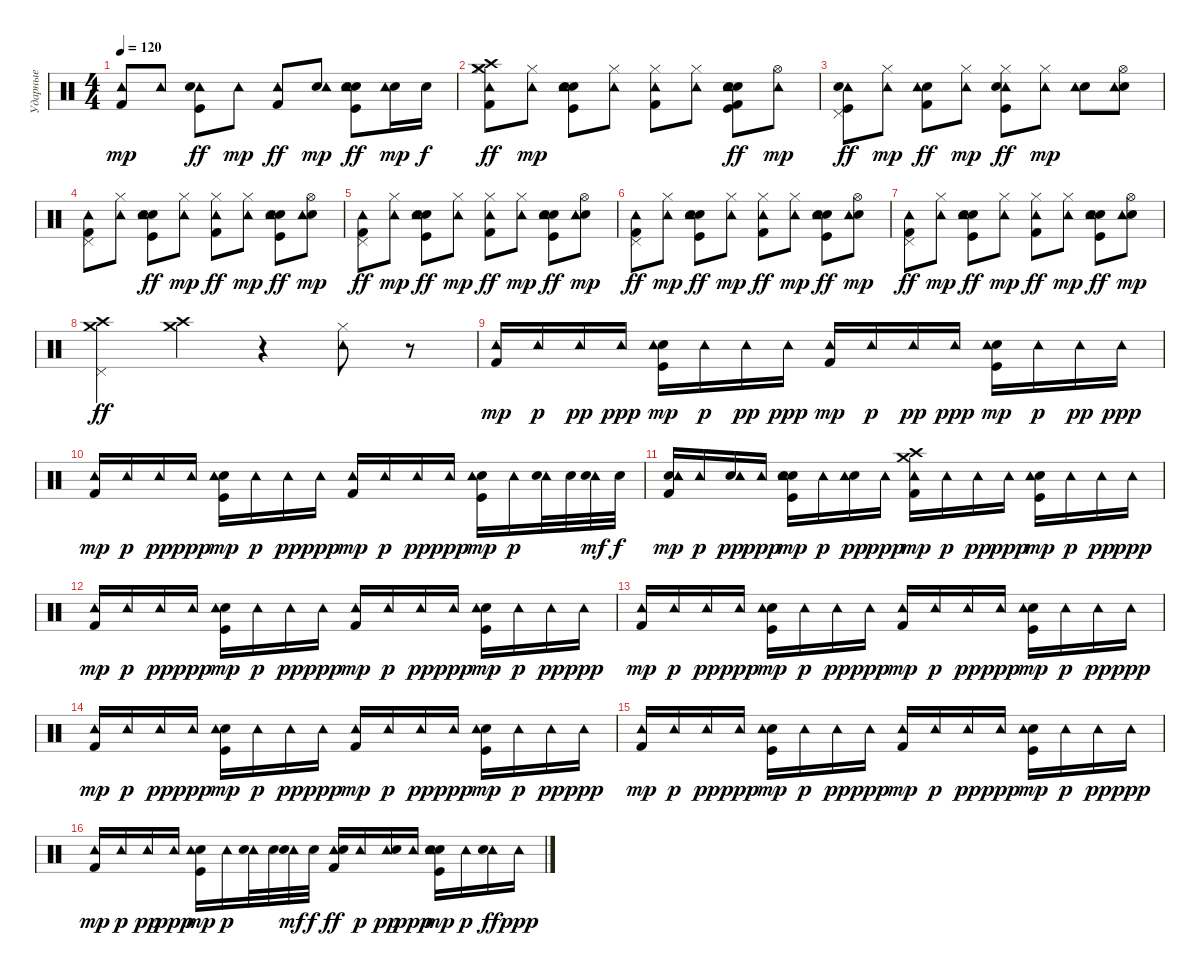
\track ("Ударные" "Ударные") {instrument percussion}
\staff {score}
\articulation defaults
\ts (4 4)
\tempo 120
\clef neutral
\ks c
("Kick (hit) 2" "Tambourine (hit)").8{dy mp} "Tambourine (hit)".8 ("Tambourine (hit)" "Kick (hit)" "Snare (hit) 2").8{dy ff} "Tambourine (hit)".8{dy mp} ("Tambourine (hit)" "Kick (hit) 2").8{dy ff} ("Electric Snare (hit)" "Tambourine (hit)").8{dy mp} ("Electric Snare (hit)" "Tambourine (hit)" "Kick (hit)" "Snare (hit) 2").8{dy ff} ("Electric Snare (hit)" "Tambourine (hit)").16{dy mp} "Electric Snare (hit)".16{dy f} |
("Crash high (hit)" "Crash medium (hit)" "Hi-Hat (closed)" "Tambourine (hit)" "Kick (hit) 2").8{dy ff} ("Hi-Hat (closed)" "Tambourine (hit)").8{dy mp} ("Electric Snare (hit)" "Kick (hit)" "Snare (hit) 2" "Tambourine (hit)").8 ("Hi-Hat (closed)" "Tambourine (hit)").8 ("Hi-Hat (closed)" "Kick (hit) 2" "Tambourine (hit)").8 ("Hi-Hat (closed)" "Tambourine (hit)").8 ("Electric Snare (hit)" "Kick (hit)" "Snare (hit) 2" "Tambourine (hit)" "Kick (hit) 2").8{dy ff} ("Hi-Hat (open)" "Tambourine (hit)").8{dy mp} |
("Pedal Hi-Hat (hit)" "Tambourine (hit)" "Kick (hit)" "Snare (hit) 2").8{dy ff} ("Hi-Hat (closed)" "Tambourine (hit)").8{dy mp} ("Electric Snare (hit)" "Tambourine (hit)" "Kick (hit) 2").8{dy ff} ("Hi-Hat (closed)" "Tambourine (hit)").8{dy mp} ("Hi-Hat (closed)" "Tambourine (hit)" "Kick (hit)" "Snare (hit) 2").8{dy ff} ("Hi-Hat (closed)" "Tambourine (hit)").8{dy mp} ("Electric Snare (hit)" "Tambourine (hit)").8 ("Electric Snare (hit)" "Hi-Hat (open)" "Tambourine (hit)").8 |
("Pedal Hi-Hat (hit)" "Kick (hit) 2" "Tambourine (hit)").8 ("Hi-Hat (closed)" "Tambourine (hit)").8 ("Electric Snare (hit)" "Tambourine (hit)" "Kick (hit)" "Snare (hit) 2").8{dy ff} ("Hi-Hat (closed)" "Tambourine (hit)").8{dy mp} ("Hi-Hat (closed)" "Tambourine (hit)" "Kick (hit) 2").8{dy ff} ("Hi-Hat (closed)" "Tambourine (hit)").8{dy mp} ("Electric Snare (hit)" "Tambourine (hit)" "Kick (hit)" "Snare (hit) 2").8{dy ff} ("Electric Snare (hit)" "Hi-Hat (open)" "Tambourine (hit)").8{dy mp} |
("Pedal Hi-Hat (hit)" "Tambourine (hit)" "Kick (hit) 2").8{dy ff} ("Hi-Hat (closed)" "Tambourine (hit)").8{dy mp} ("Electric Snare (hit)" "Tambourine (hit)" "Kick (hit)" "Snare (hit) 2").8{dy ff} ("Hi-Hat (closed)" "Tambourine (hit)").8{dy mp} ("Hi-Hat (closed)" "Tambourine (hit)" "Kick (hit) 2").8{dy ff} ("Hi-Hat (closed)" "Tambourine (hit)").8{dy mp} ("Electric Snare (hit)" "Tambourine (hit)" "Kick (hit)" "Snare (hit) 2").8{dy ff} ("Electric Snare (hit)" "Hi-Hat (open)" "Tambourine (hit)").8{dy mp} |
("Pedal Hi-Hat (hit)" "Tambourine (hit)" "Kick (hit) 2").8{dy ff} ("Hi-Hat (closed)" "Tambourine (hit)").8{dy mp} ("Electric Snare (hit)" "Tambourine (hit)" "Kick (hit)" "Snare (hit) 2").8{dy ff} ("Hi-Hat (closed)" "Tambourine (hit)").8{dy mp} ("Hi-Hat (closed)" "Tambourine (hit)" "Kick (hit) 2").8{dy ff} ("Hi-Hat (closed)" "Tambourine (hit)").8{dy mp} ("Electric Snare (hit)" "Tambourine (hit)" "Kick (hit)" "Snare (hit) 2").8{dy ff} ("Electric Snare (hit)" "Hi-Hat (open)" "Tambourine (hit)").8{dy mp} |
("Pedal Hi-Hat (hit)" "Tambourine (hit)" "Kick (hit) 2").8{dy ff} ("Hi-Hat (closed)" "Tambourine (hit)").8{dy mp} ("Electric Snare (hit)" "Tambourine (hit)" "Kick (hit)" "Snare (hit) 2").8{dy ff} ("Hi-Hat (closed)" "Tambourine (hit)").8{dy mp} ("Hi-Hat (closed)" "Tambourine (hit)" "Kick (hit) 2").8{dy ff} ("Hi-Hat (closed)" "Tambourine (hit)").8{dy mp} ("Electric Snare (hit)" "Tambourine (hit)" "Kick (hit)" "Snare (hit) 2").8{dy ff} ("Hi-Hat (open)" "Electric Snare (hit)" "Tambourine (hit)").8{dy mp} |
("Pedal Hi-Hat (hit)" "Crash high (hit)" "Crash medium (hit)").4{dy ff} ("Crash high (hit)" "Crash medium (hit)").4 r.4 ("Hi-Hat (closed)" "Tambourine (hit)").8 r.8 |
("Kick (hit) 2" "Tambourine (hit)").16{dy mp} "Tambourine (hit)".16{dy p} "Tambourine (hit)".16{dy pp} "Tambourine (hit)".16{dy ppp} ("Kick (hit)" "Snare (hit) 2" "Tambourine (hit)").16{dy mp} "Tambourine (hit)".16{dy p} "Tambourine (hit)".16{dy pp} "Tambourine (hit)".16{dy ppp} ("Kick (hit) 2" "Tambourine (hit)").16{dy mp} "Tambourine (hit)".16{dy p} "Tambourine (hit)".16{dy pp} "Tambourine (hit)".16{dy ppp} ("Kick (hit)" "Snare (hit) 2" "Tambourine (hit)").16{dy mp} "Tambourine (hit)".16{dy p} "Tambourine (hit)".16{dy pp} "Tambourine (hit)".16{dy ppp} |
("Kick (hit) 2" "Tambourine (hit)").16{dy mp} "Tambourine (hit)".16{dy p} "Tambourine (hit)".16{dy pp} "Tambourine (hit)".16{dy ppp} ("Kick (hit)" "Snare (hit) 2" "Tambourine (hit)").16{dy mp} "Tambourine (hit)".16{dy p} "Tambourine (hit)".16{dy pp} "Tambourine (hit)".16{dy ppp} ("Kick (hit) 2" "Tambourine (hit)").16{dy mp} "Tambourine (hit)".16{dy p} "Tambourine (hit)".16{dy pp} "Tambourine (hit)".16{dy ppp} ("Kick (hit)" "Snare (hit) 2" "Tambourine (hit)").16{dy mp} "Tambourine (hit)".16{dy p} ("Tambourine (hit)" "Electric Snare (hit)").32 "Electric Snare (hit)".32 ("Tambourine (hit)" "Electric Snare (hit)").32{dy mf} "Electric Snare (hit)".32{dy f} |
("Electric Snare (hit)" "Kick (hit) 2" "Tambourine (hit)").16{dy mp} "Tambourine (hit)".16{dy p} ("Electric Snare (hit)" "Tambourine (hit)").16{dy pp} "Tambourine (hit)".16{dy ppp} ("Electric Snare (hit)" "Kick (hit)" "Snare (hit) 2" "Tambourine (hit)").16{dy mp} "Tambourine (hit)".16{dy p} ("Electric Snare (hit)" "Tambourine (hit)").16{dy pp} "Tambourine (hit)".16{dy ppp} ("Crash medium (hit)" "Crash high (hit)" "Kick (hit) 2" "Tambourine (hit)").16{dy mp} "Tambourine (hit)".16{dy p} "Tambourine (hit)".16{dy pp} "Tambourine (hit)".16{dy ppp} ("Kick (hit)" "Snare (hit) 2" "Tambourine (hit)").16{dy mp} "Tambourine (hit)".16{dy p} "Tambourine (hit)".16{dy pp} "Tambourine (hit)".16{dy ppp} |
("Kick (hit) 2" "Tambourine (hit)").16{dy mp} "Tambourine (hit)".16{dy p} "Tambourine (hit)".16{dy pp} "Tambourine (hit)".16{dy ppp} ("Kick (hit)" "Snare (hit) 2" "Tambourine (hit)").16{dy mp} "Tambourine (hit)".16{dy p} "Tambourine (hit)".16{dy pp} "Tambourine (hit)".16{dy ppp} ("Kick (hit) 2" "Tambourine (hit)").16{dy mp} "Tambourine (hit)".16{dy p} "Tambourine (hit)".16{dy pp} "Tambourine (hit)".16{dy ppp} ("Kick (hit)" "Snare (hit) 2" "Tambourine (hit)").16{dy mp} "Tambourine (hit)".16{dy p} "Tambourine (hit)".16{dy pp} "Tambourine (hit)".16{dy ppp} |
("Kick (hit) 2" "Tambourine (hit)").16{dy mp} "Tambourine (hit)".16{dy p} "Tambourine (hit)".16{dy pp} "Tambourine (hit)".16{dy ppp} ("Kick (hit)" "Snare (hit) 2" "Tambourine (hit)").16{dy mp} "Tambourine (hit)".16{dy p} "Tambourine (hit)".16{dy pp} "Tambourine (hit)".16{dy ppp} ("Kick (hit) 2" "Tambourine (hit)").16{dy mp} "Tambourine (hit)".16{dy p} "Tambourine (hit)".16{dy pp} "Tambourine (hit)".16{dy ppp} ("Kick (hit)" "Snare (hit) 2" "Tambourine (hit)").16{dy mp} "Tambourine (hit)".16{dy p} "Tambourine (hit)".16{dy pp} "Tambourine (hit)".16{dy ppp} |
("Kick (hit) 2" "Tambourine (hit)").16{dy mp} "Tambourine (hit)".16{dy p} "Tambourine (hit)".16{dy pp} "Tambourine (hit)".16{dy ppp} ("Kick (hit)" "Snare (hit) 2" "Tambourine (hit)").16{dy mp} "Tambourine (hit)".16{dy p} "Tambourine (hit)".16{dy pp} "Tambourine (hit)".16{dy ppp} ("Kick (hit) 2" "Tambourine (hit)").16{dy mp} "Tambourine (hit)".16{dy p} "Tambourine (hit)".16{dy pp} "Tambourine (hit)".16{dy ppp} ("Kick (hit)" "Snare (hit) 2" "Tambourine (hit)").16{dy mp} "Tambourine (hit)".16{dy p} "Tambourine (hit)".16{dy pp} "Tambourine (hit)".16{dy ppp} |
("Kick (hit) 2" "Tambourine (hit)").16{dy mp} "Tambourine (hit)".16{dy p} "Tambourine (hit)".16{dy pp} "Tambourine (hit)".16{dy ppp} ("Kick (hit)" "Snare (hit) 2" "Tambourine (hit)").16{dy mp} "Tambourine (hit)".16{dy p} "Tambourine (hit)".16{dy pp} "Tambourine (hit)".16{dy ppp} ("Kick (hit) 2" "Tambourine (hit)").16{dy mp} "Tambourine (hit)".16{dy p} "Tambourine (hit)".16{dy pp} "Tambourine (hit)".16{dy ppp} ("Kick (hit)" "Snare (hit) 2" "Tambourine (hit)").16{dy mp} "Tambourine (hit)".16{dy p} "Tambourine (hit)".16{dy pp} "Tambourine (hit)".16{dy ppp} |
("Kick (hit) 2" "Tambourine (hit)").16{dy mp} "Tambourine (hit)".16{dy p} "Tambourine (hit)".16{dy pp} "Tambourine (hit)".16{dy ppp} ("Kick (hit)" "Snare (hit) 2" "Tambourine (hit)").16{dy mp} "Tambourine (hit)".16{dy p} ("Tambourine (hit)" "Electric Snare (hit)").32 "Electric Snare (hit)".32 ("Tambourine (hit)" "Electric Snare (hit)").32{dy mf} "Electric Snare (hit)".32{dy f} ("Kick (hit) 2" "Tambourine (hit)" "Electric Snare (hit)").16{dy ff} "Tambourine (hit)".16{dy p} ("Tambourine (hit)" "Electric Snare (hit)").16{dy pp} "Tambourine (hit)".16{dy ppp} ("Kick (hit)" "Snare (hit) 2" "Tambourine (hit)" "Electric Snare (hit)").16{dy mp} "Tambourine (hit)".16{dy p} ("Tambourine (hit)" "Electric Snare (hit)").16{dy ff} "Tambourine (hit)".16{dy ppp}
